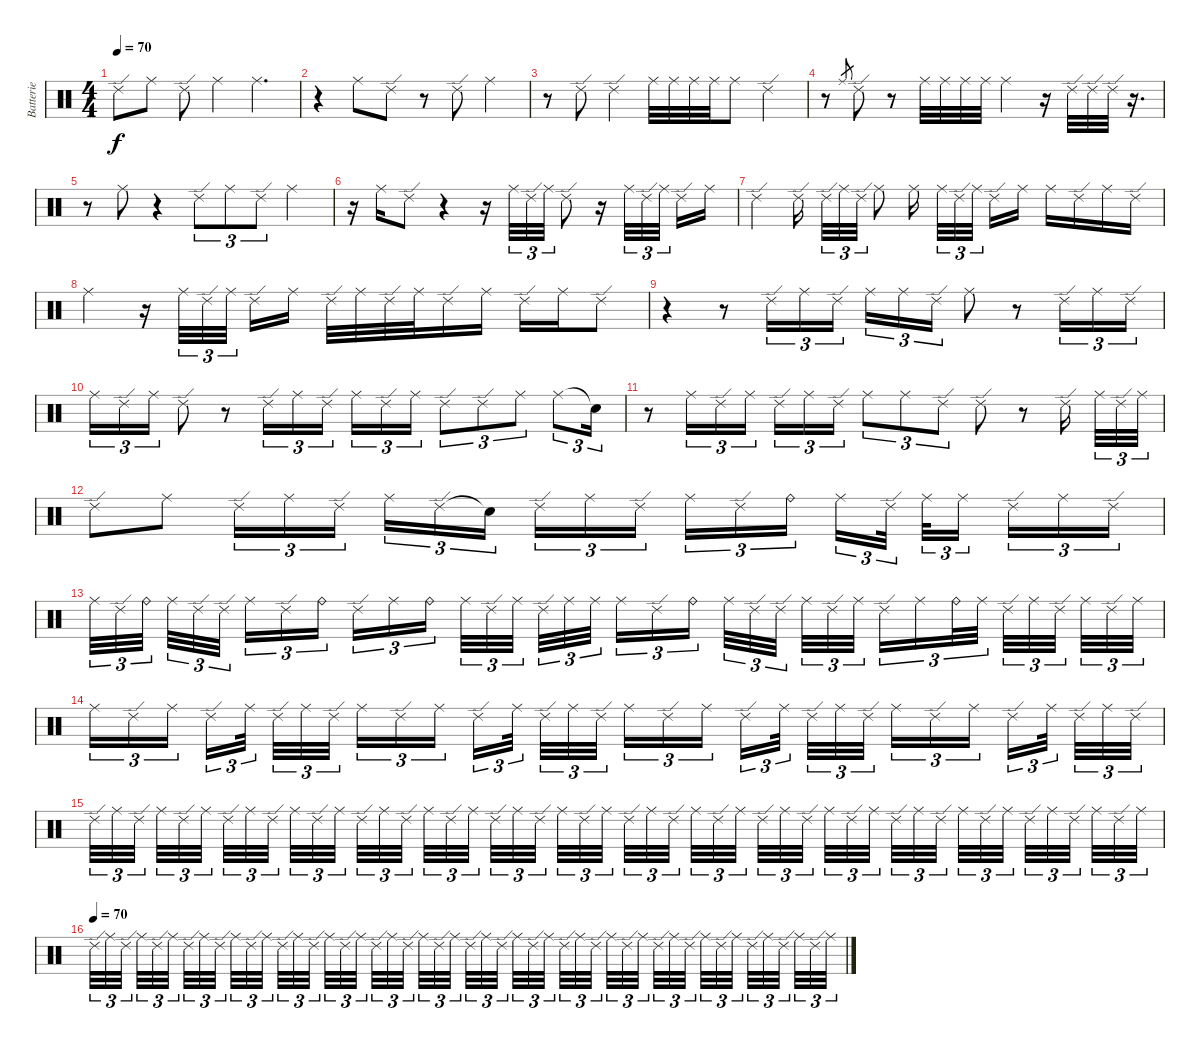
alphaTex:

\track ("Batterie" "Batterie") {instrument percussion}
\staff {score}
\articulation defaults
\ts (4 4)
\tempo 70
\clef neutral
\ks c "Ride (edge) 2".8{dy f} "Ride (middle)".8 "Ride (edge) 2".8 "Ride (middle)".4 "Ride (middle)".4{d}
|
r.4 "Ride (middle)".8 "Ride (edge) 2".8 r.8 "Ride (edge) 2".8 "Ride (middle)".4 |
r.8 "Ride (edge) 2".8 "Ride (edge) 2".4 "Ride (middle)".32 "Ride (middle)".32 "Ride (middle)".32 "Ride (middle)".32 "Ride (middle)".8 "Ride (edge) 2".4 |
r.8 "Ride (middle)".8{gr} "Ride (edge) 2".8 r.8 "Ride (middle)".32 "Ride (middle)".32 "Ride (middle)".32 "Ride (middle)".32 "Ride (middle)".4 r.16 "Ride (edge) 2".32 "Ride (edge) 2".32 "Ride (edge) 2".32 r.16{d} |
r.8 "Ride (middle)".8 r.4 "Ride (edge) 2".8{tu (3 2)} "Ride (middle)".8{tu (3 2)} "Ride (edge) 2".8{tu (3 2)} "Ride (middle)".4 |
r.16 "Ride (middle)".16 "Ride (edge) 2".8 r.4 r.16 "Ride (middle)".32{tu (3 2)} "Ride (edge) 2".32{tu (3 2)} "Ride (middle)".32{tu (3 2)} "Ride (edge) 2".8 r.16 "Ride (middle)".32{tu (3 2)} "Ride (edge) 2".32{tu (3 2)} "Ride (middle)".32{tu (3 2)} "Ride (edge) 2".16 "Ride (middle)".16 |
"Ride (edge) 2".4 "Ride (edge) 2".16 "Ride (edge) 2".32{tu (3 2)} "Ride (middle)".32{tu (3 2)} "Ride (edge) 2".32{tu (3 2)} "Ride (middle)".8 "Ride (middle)".16 "Ride (middle)".32{tu (3 2)} "Ride (edge) 2".32{tu (3 2)} "Ride (middle)".32{tu (3 2)} "Ride (edge) 2".16 "Ride (middle)".16 "Ride (middle)".16 "Ride (edge) 2".16 "Ride (middle)".16 "Ride (edge) 2".16 |
"Ride (middle)".4 r.16 "Ride (middle)".32{tu (3 2)} "Ride (edge) 2".32{tu (3 2)} "Ride (middle)".32{tu (3 2)} "Ride (edge) 2".16 "Ride (middle)".16 "Ride (edge) 2".32 "Ride (middle)".32 "Ride (edge) 2".32 "Ride (middle)".32 "Ride (edge) 2".16 "Ride (middle)".16 "Ride (edge) 2".16 "Ride (middle)".16 "Ride (edge) 2".8 |
r.4 r.8 "Ride (edge) 2".16{tu (3 2)} "Ride (middle)".16{tu (3 2)} "Ride (edge) 2".16{tu (3 2)} "Ride (middle)".16{tu (3 2)} "Ride (middle)".16{tu (3 2)} "Ride (edge) 2".16{tu (3 2)} "Ride (middle)".8 r.8 "Ride (edge) 2".16{tu (3 2)} "Ride (middle)".16{tu (3 2)} "Ride (edge) 2".16{tu (3 2)} |
"Ride (middle)".16{tu (3 2)} "Ride (edge) 2".16{tu (3 2)} "Ride (middle)".16{tu (3 2)} "Ride (edge) 2".8 r.8 "Ride (edge) 2".16{tu (3 2)} "Ride (middle)".16{tu (3 2)} "Ride (edge) 2".16{tu (3 2)} "Ride (middle)".16{tu (3 2)} "Ride (edge) 2".16{tu (3 2)} "Ride (middle)".16{tu (3 2)} "Ride (edge) 2".8{tu (3 2)} "Ride (edge) 2".8{tu (3 2)} "Ride (middle)".8{tu (3 2)} "Ride (middle)".8{tu (3 2)} "Snare (hit)"{t}.16{tu (3 2)} |
r.8 "Ride (middle)".16{tu (3 2)} "Ride (edge) 2".16{tu (3 2)} "Ride (middle)".16{tu (3 2)} "Ride (edge) 2".16{tu (3 2)} "Ride (middle)".16{tu (3 2)} "Ride (edge) 2".16{tu (3 2)} "Ride (middle)".8{tu (3 2)} "Ride (middle)".8{tu (3 2)} "Ride (edge) 2".8{tu (3 2)} "Ride (edge) 2".8 r.8 "Ride (edge) 2".16 "Ride (middle)".32{tu (3 2)} "Ride (edge) 2".32{tu (3 2)} "Ride (middle)".32{tu (3 2)} |
"Ride (edge) 2".8 "Ride (middle)".8 "Ride (edge) 2".16{tu (3 2)} "Ride (middle)".16{tu (3 2)} "Ride (edge) 2".16{tu (3 2)} "Ride (middle)".16{tu (3 2)} "Ride (edge) 2".16{tu (3 2)} "Snare (hit)"{t}.16{tu (3 2)} "Ride (edge) 2".16{tu (3 2)} "Ride (middle)".16{tu (3 2)} "Ride (edge) 2".16{tu (3 2)} "Ride (middle)".16{tu (3 2)} "Ride (edge) 2".16{tu (3 2)} "Ride (bell)".16{tu (3 2)} "Ride (middle)".16{tu (3 2)} "Ride (edge) 2".32{tu (3 2)} "Ride (middle)".32{tu (3 2)} "Ride (middle)".16{tu (3 2)} "Ride (edge) 2".16{tu (3 2)} "Ride (middle)".16{tu (3 2)} "Ride (edge) 2".16{tu (3 2)} |
"Ride (middle)".32{tu (3 2)} "Ride (edge) 2".32{tu (3 2)} "Ride (bell)".32{tu (3 2)} "Ride (middle)".32{tu (3 2)} "Ride (edge) 2".32{tu (3 2)} "Ride (edge) 2".32{tu (3 2)} "Ride (middle)".16{tu (3 2)} "Ride (edge) 2".16{tu (3 2)} "Ride (bell)".16{tu (3 2)} "Ride (edge) 2".16{tu (3 2)} "Ride (middle)".16{tu (3 2)} "Ride (bell)".16{tu (3 2)} "Ride (middle)".32{tu (3 2)} "Ride (edge) 2".32{tu (3 2)} "Ride (middle)".32{tu (3 2)} "Ride (edge) 2".32{tu (3 2)} "Ride (middle)".32{tu (3 2)} "Ride (middle)".32{tu (3 2)} "Ride (middle)".16{tu (3 2)} "Ride (edge) 2".16{tu (3 2)} "Ride (bell)".16{tu (3 2)} "Ride (middle)".32{tu (3 2)} "Ride (edge) 2".32{tu (3 2)} "Ride (edge) 2".32{tu (3 2)} "Ride (middle)".32{tu (3 2)} "Ride (edge) 2".32{tu (3 2)} "Ride (middle)".32{tu (3 2)} "Ride (edge) 2".16{tu (3 2)} "Ride (middle)".16{tu (3 2)} "Ride (bell)".32{tu (3 2)} "Ride (middle)".32{tu (3 2)} "Ride (edge) 2".32{tu (3 2)} "Ride (middle)".32{tu (3 2)} "Ride (edge) 2".32{tu (3 2)} "Ride (middle)".32{tu (3 2)} "Ride (edge) 2".32{tu (3 2)} "Ride (middle)".32{tu (3 2)} |
"Ride (middle)".16{tu (3 2)} "Ride (edge) 2".16{tu (3 2)} "Ride (middle)".16{tu (3 2)} "Ride (edge) 2".16{tu (3 2)} "Ride (middle)".32{tu (3 2)} "Ride (edge) 2".32{tu (3 2)} "Ride (middle)".32{tu (3 2)} "Ride (edge) 2".32{tu (3 2)} "Ride (middle)".16{tu (3 2)} "Ride (edge) 2".16{tu (3 2)} "Ride (middle)".16{tu (3 2)} "Ride (edge) 2".16{tu (3 2)} "Ride (middle)".32{tu (3 2)} "Ride (edge) 2".32{tu (3 2)} "Ride (middle)".32{tu (3 2)} "Ride (edge) 2".32{tu (3 2)} "Ride (middle)".16{tu (3 2)} "Ride (edge) 2".16{tu (3 2)} "Ride (middle)".16{tu (3 2)} "Ride (edge) 2".16{tu (3 2)} "Ride (middle)".32{tu (3 2)} "Ride (edge) 2".32{tu (3 2)} "Ride (middle)".32{tu (3 2)} "Ride (edge) 2".32{tu (3 2)} "Ride (middle)".16{tu (3 2)} "Ride (edge) 2".16{tu (3 2)} "Ride (middle)".16{tu (3 2)} "Ride (edge) 2".16{tu (3 2)} "Ride (middle)".32{tu (3 2)} "Ride (edge) 2".32{tu (3 2)} "Ride (middle)".32{tu (3 2)} "Ride (edge) 2".32{tu (3 2)} |
"Ride (edge) 2".32{tu (3 2)} "Ride (middle)".32{tu (3 2)} "Ride (edge) 2".32{tu (3 2)} "Ride (middle)".32{tu (3 2)} "Ride (edge) 2".32{tu (3 2)} "Ride (middle)".32{tu (3 2)} "Ride (edge) 2".32{tu (3 2)} "Ride (middle)".32{tu (3 2)} "Ride (edge) 2".32{tu (3 2)} "Ride (middle)".32{tu (3 2)} "Ride (edge) 2".32{tu (3 2)} "Ride (middle)".32{tu (3 2)} "Ride (edge) 2".32{tu (3 2)} "Ride (middle)".32{tu (3 2)} "Ride (edge) 2".32{tu (3 2)} "Ride (middle)".32{tu (3 2)} "Ride (edge) 2".32{tu (3 2)} "Ride (middle)".32{tu (3 2)} "Ride (edge) 2".32{tu (3 2)} "Ride (middle)".32{tu (3 2)} "Ride (edge) 2".32{tu (3 2)} "Ride (middle)".32{tu (3 2)} "Ride (edge) 2".32{tu (3 2)} "Ride (middle)".32{tu (3 2)} "Ride (edge) 2".32{tu (3 2)} "Ride (middle)".32{tu (3 2)} "Ride (edge) 2".32{tu (3 2)} "Ride (middle)".32{tu (3 2)} "Ride (edge) 2".32{tu (3 2)} "Ride (middle)".32{tu (3 2)} "Ride (edge) 2".32{tu (3 2)} "Ride (middle)".32{tu (3 2)} "Ride (edge) 2".32{tu (3 2)} "Ride (middle)".32{tu (3 2)} "Ride (edge) 2".32{tu (3 2)} "Ride (middle)".32{tu (3 2)} "Ride (edge) 2".32{tu (3 2)} "Ride (middle)".32{tu (3 2)} "Ride (edge) 2".32{tu (3 2)} "Ride (middle)".32{tu (3 2)} "Ride (edge) 2".32{tu (3 2)} "Ride (middle)".32{tu (3 2)} "Ride (edge) 2".32{tu (3 2)} "Ride (middle)".32{tu (3 2)} "Ride (edge) 2".32{tu (3 2)} "Ride (middle)".32{tu (3 2)} "Ride (edge) 2".32{tu (3 2)} "Ride (middle)".32{tu (3 2)} |
\tempo (70)
"Ride (edge) 2".32{tu (3 2) volume 0} "Ride (middle)".32{tu (3 2)} "Ride (edge) 2".32{tu (3 2)} "Ride (middle)".32{tu (3 2)} "Ride (edge) 2".32{tu (3 2)} "Ride (middle)".32{tu (3 2)} "Ride (edge) 2".32{tu (3 2)} "Ride (middle)".32{tu (3 2)} "Ride (edge) 2".32{tu (3 2)} "Ride (middle)".32{tu (3 2)} "Ride (edge) 2".32{tu (3 2)} "Ride (middle)".32{tu (3 2)} "Ride (edge) 2".32{tu (3 2)} "Ride (middle)".32{tu (3 2)} "Ride (edge) 2".32{tu (3 2)} "Ride (middle)".32{tu (3 2)} "Ride (edge) 2".32{tu (3 2)} "Ride (middle)".32{tu (3 2)} "Ride (edge) 2".32{tu (3 2)} "Ride (middle)".32{tu (3 2)} "Ride (edge) 2".32{tu (3 2)} "Ride (middle)".32{tu (3 2)} "Ride (edge) 2".32{tu (3 2)} "Ride (middle)".32{tu (3 2)} "Ride (edge) 2".32{tu (3 2)} "Ride (middle)".32{tu (3 2)} "Ride (edge) 2".32{tu (3 2)} "Ride (middle)".32{tu (3 2)} "Ride (edge) 2".32{tu (3 2)} "Ride (middle)".32{tu (3 2)} "Ride (edge) 2".32{tu (3 2)} "Ride (middle)".32{tu (3 2)} "Ride (edge) 2".32{tu (3 2)} "Ride (middle)".32{tu (3 2)} "Ride (edge) 2".32{tu (3 2)} "Ride (middle)".32{tu (3 2)} "Ride (edge) 2".32{tu (3 2)} "Ride (middle)".32{tu (3 2)} "Ride (edge) 2".32{tu (3 2)} "Ride (middle)".32{tu (3 2)} "Ride (edge) 2".32{tu (3 2)} "Ride (middle)".32{tu (3 2)} "Ride (edge) 2".32{tu (3 2)} "Ride (middle)".32{tu (3 2)} "Ride (edge) 2".32{tu (3 2)} "Ride (middle)".32{tu (3 2)} "Ride (edge) 2".32{tu (3 2)} "Ride (middle)".32{tu (3 2)}
